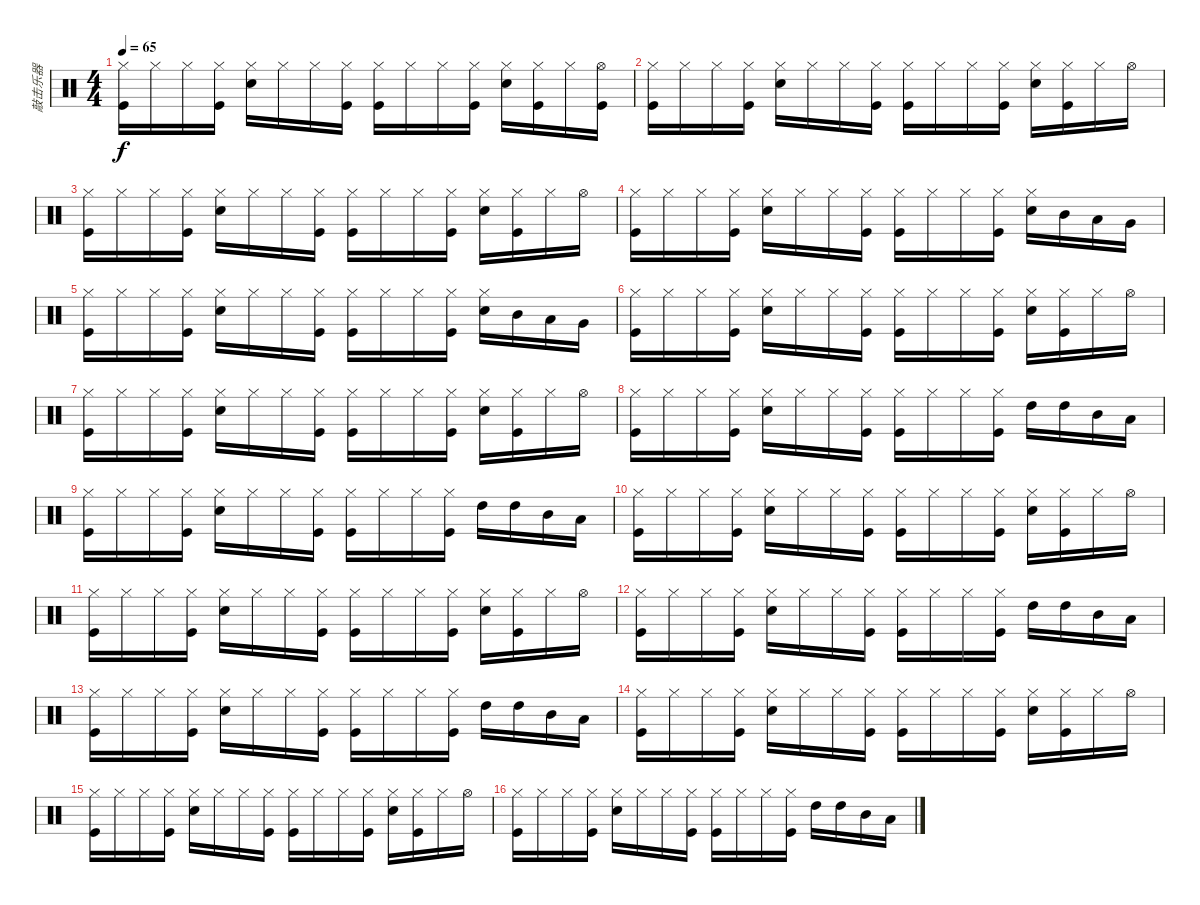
\track ("敲击乐器" "敲击乐器") {instrument percussion}
\staff {score}
\articulation defaults
\ts (4 4)
\tempo 65
\clef neutral
\ks c
("Hi-Hat (closed)" "Kick (hit)").16{dy f} "Hi-Hat (closed)".16 "Hi-Hat (closed)".16 ("Hi-Hat (closed)" "Kick (hit)").16 ("Hi-Hat (closed)" "Electric Snare (hit)").16 "Hi-Hat (closed)".16 "Hi-Hat (closed)".16 ("Hi-Hat (closed)" "Kick (hit)").16 ("Hi-Hat (closed)" "Kick (hit)").16 "Hi-Hat (closed)".16 "Hi-Hat (closed)".16 ("Hi-Hat (closed)" "Kick (hit)").16 ("Hi-Hat (closed)" "Electric Snare (hit)").16 ("Hi-Hat (closed)" "Kick (hit)").16 "Hi-Hat (closed)".16 ("Hi-Hat (open)" "Kick (hit)").16 |
("Hi-Hat (closed)" "Kick (hit)").16 "Hi-Hat (closed)".16 "Hi-Hat (closed)".16 ("Hi-Hat (closed)" "Kick (hit)").16 ("Hi-Hat (closed)" "Electric Snare (hit)").16 "Hi-Hat (closed)".16 "Hi-Hat (closed)".16 ("Hi-Hat (closed)" "Kick (hit)").16 ("Hi-Hat (closed)" "Kick (hit)").16 "Hi-Hat (closed)".16 "Hi-Hat (closed)".16 ("Hi-Hat (closed)" "Kick (hit)").16 ("Hi-Hat (closed)" "Electric Snare (hit)").16 ("Hi-Hat (closed)" "Kick (hit)").16 "Hi-Hat (closed)".16 "Hi-Hat (open)".16 |
("Hi-Hat (closed)" "Kick (hit)").16 "Hi-Hat (closed)".16 "Hi-Hat (closed)".16 ("Hi-Hat (closed)" "Kick (hit)").16 ("Hi-Hat (closed)" "Electric Snare (hit)").16 "Hi-Hat (closed)".16 "Hi-Hat (closed)".16 ("Hi-Hat (closed)" "Kick (hit)").16 ("Hi-Hat (closed)" "Kick (hit)").16 "Hi-Hat (closed)".16 "Hi-Hat (closed)".16 ("Hi-Hat (closed)" "Kick (hit)").16 ("Hi-Hat (closed)" "Electric Snare (hit)").16 ("Hi-Hat (closed)" "Kick (hit)").16 "Hi-Hat (closed)".16 "Hi-Hat (open)".16 |
("Hi-Hat (closed)" "Kick (hit)").16 "Hi-Hat (closed)".16 "Hi-Hat (closed)".16 ("Hi-Hat (closed)" "Kick (hit)").16 ("Hi-Hat (closed)" "Electric Snare (hit)").16 "Hi-Hat (closed)".16 "Hi-Hat (closed)".16 ("Hi-Hat (closed)" "Kick (hit)").16 ("Hi-Hat (closed)" "Kick (hit)").16 "Hi-Hat (closed)".16 "Hi-Hat (closed)".16 ("Hi-Hat (closed)" "Kick (hit)").16 ("Hi-Hat (closed)" "Electric Snare (hit)").16 "Mid Tom (hit)".16 "Low Tom (hit)".16 "Very Low Tom (hit)".16 |
("Hi-Hat (closed)" "Kick (hit)").16 "Hi-Hat (closed)".16 "Hi-Hat (closed)".16 ("Hi-Hat (closed)" "Kick (hit)").16 ("Hi-Hat (closed)" "Electric Snare (hit)").16 "Hi-Hat (closed)".16 "Hi-Hat (closed)".16 ("Hi-Hat (closed)" "Kick (hit)").16 ("Hi-Hat (closed)" "Kick (hit)").16 "Hi-Hat (closed)".16 "Hi-Hat (closed)".16 ("Hi-Hat (closed)" "Kick (hit)").16 ("Hi-Hat (closed)" "Electric Snare (hit)").16 "Mid Tom (hit)".16 "Low Tom (hit)".16 "Very Low Tom (hit)".16 |
("Hi-Hat (closed)" "Kick (hit)").16 "Hi-Hat (closed)".16 "Hi-Hat (closed)".16 ("Hi-Hat (closed)" "Kick (hit)").16 ("Hi-Hat (closed)" "Electric Snare (hit)").16 "Hi-Hat (closed)".16 "Hi-Hat (closed)".16 ("Hi-Hat (closed)" "Kick (hit)").16 ("Hi-Hat (closed)" "Kick (hit)").16 "Hi-Hat (closed)".16 "Hi-Hat (closed)".16 ("Hi-Hat (closed)" "Kick (hit)").16 ("Hi-Hat (closed)" "Electric Snare (hit)").16 ("Hi-Hat (closed)" "Kick (hit)").16 "Hi-Hat (closed)".16 "Hi-Hat (open)".16 |
("Hi-Hat (closed)" "Kick (hit)").16 "Hi-Hat (closed)".16 "Hi-Hat (closed)".16 ("Hi-Hat (closed)" "Kick (hit)").16 ("Hi-Hat (closed)" "Electric Snare (hit)").16 "Hi-Hat (closed)".16 "Hi-Hat (closed)".16 ("Hi-Hat (closed)" "Kick (hit)").16 ("Hi-Hat (closed)" "Kick (hit)").16 "Hi-Hat (closed)".16 "Hi-Hat (closed)".16 ("Hi-Hat (closed)" "Kick (hit)").16 ("Hi-Hat (closed)" "Electric Snare (hit)").16 ("Hi-Hat (closed)" "Kick (hit)").16 "Hi-Hat (closed)".16 "Hi-Hat (open)".16 |
("Hi-Hat (closed)" "Kick (hit)").16 "Hi-Hat (closed)".16 "Hi-Hat (closed)".16 ("Hi-Hat (closed)" "Kick (hit)").16 ("Hi-Hat (closed)" "Electric Snare (hit)").16 "Hi-Hat (closed)".16 "Hi-Hat (closed)".16 ("Hi-Hat (closed)" "Kick (hit)").16 ("Hi-Hat (closed)" "Kick (hit)").16 "Hi-Hat (closed)".16 "Hi-Hat (closed)".16 ("Hi-Hat (closed)" "Kick (hit)").16 "High Tom (hit)".16 "High Tom (hit)".16 "Mid Tom (hit)".16 "Low Tom (hit)".16 |
("Hi-Hat (closed)" "Kick (hit)").16 "Hi-Hat (closed)".16 "Hi-Hat (closed)".16 ("Hi-Hat (closed)" "Kick (hit)").16 ("Hi-Hat (closed)" "Electric Snare (hit)").16 "Hi-Hat (closed)".16 "Hi-Hat (closed)".16 ("Hi-Hat (closed)" "Kick (hit)").16 ("Hi-Hat (closed)" "Kick (hit)").16 "Hi-Hat (closed)".16 "Hi-Hat (closed)".16 ("Hi-Hat (closed)" "Kick (hit)").16 "High Tom (hit)".16 "High Tom (hit)".16 "Mid Tom (hit)".16 "Low Tom (hit)".16 |
("Hi-Hat (closed)" "Kick (hit)").16 "Hi-Hat (closed)".16 "Hi-Hat (closed)".16 ("Hi-Hat (closed)" "Kick (hit)").16 ("Hi-Hat (closed)" "Electric Snare (hit)").16 "Hi-Hat (closed)".16 "Hi-Hat (closed)".16 ("Hi-Hat (closed)" "Kick (hit)").16 ("Hi-Hat (closed)" "Kick (hit)").16 "Hi-Hat (closed)".16 "Hi-Hat (closed)".16 ("Hi-Hat (closed)" "Kick (hit)").16 ("Hi-Hat (closed)" "Electric Snare (hit)").16 ("Hi-Hat (closed)" "Kick (hit)").16 "Hi-Hat (closed)".16 "Hi-Hat (open)".16 |
("Hi-Hat (closed)" "Kick (hit)").16 "Hi-Hat (closed)".16 "Hi-Hat (closed)".16 ("Hi-Hat (closed)" "Kick (hit)").16 ("Hi-Hat (closed)" "Electric Snare (hit)").16 "Hi-Hat (closed)".16 "Hi-Hat (closed)".16 ("Hi-Hat (closed)" "Kick (hit)").16 ("Hi-Hat (closed)" "Kick (hit)").16 "Hi-Hat (closed)".16 "Hi-Hat (closed)".16 ("Hi-Hat (closed)" "Kick (hit)").16 ("Hi-Hat (closed)" "Electric Snare (hit)").16 ("Hi-Hat (closed)" "Kick (hit)").16 "Hi-Hat (closed)".16 "Hi-Hat (open)".16 |
("Hi-Hat (closed)" "Kick (hit)").16 "Hi-Hat (closed)".16 "Hi-Hat (closed)".16 ("Hi-Hat (closed)" "Kick (hit)").16 ("Hi-Hat (closed)" "Electric Snare (hit)").16 "Hi-Hat (closed)".16 "Hi-Hat (closed)".16 ("Hi-Hat (closed)" "Kick (hit)").16 ("Hi-Hat (closed)" "Kick (hit)").16 "Hi-Hat (closed)".16 "Hi-Hat (closed)".16 ("Hi-Hat (closed)" "Kick (hit)").16 "High Tom (hit)".16 "High Tom (hit)".16 "Mid Tom (hit)".16 "Low Tom (hit)".16 |
("Hi-Hat (closed)" "Kick (hit)").16 "Hi-Hat (closed)".16 "Hi-Hat (closed)".16 ("Hi-Hat (closed)" "Kick (hit)").16 ("Hi-Hat (closed)" "Electric Snare (hit)").16 "Hi-Hat (closed)".16 "Hi-Hat (closed)".16 ("Hi-Hat (closed)" "Kick (hit)").16 ("Hi-Hat (closed)" "Kick (hit)").16 "Hi-Hat (closed)".16 "Hi-Hat (closed)".16 ("Hi-Hat (closed)" "Kick (hit)").16 "High Tom (hit)".16 "High Tom (hit)".16 "Mid Tom (hit)".16 "Low Tom (hit)".16 |
("Hi-Hat (closed)" "Kick (hit)").16 "Hi-Hat (closed)".16 "Hi-Hat (closed)".16 ("Hi-Hat (closed)" "Kick (hit)").16 ("Hi-Hat (closed)" "Electric Snare (hit)").16 "Hi-Hat (closed)".16 "Hi-Hat (closed)".16 ("Hi-Hat (closed)" "Kick (hit)").16 ("Hi-Hat (closed)" "Kick (hit)").16 "Hi-Hat (closed)".16 "Hi-Hat (closed)".16 ("Hi-Hat (closed)" "Kick (hit)").16 ("Hi-Hat (closed)" "Electric Snare (hit)").16 ("Hi-Hat (closed)" "Kick (hit)").16 "Hi-Hat (closed)".16 "Hi-Hat (open)".16 |
("Hi-Hat (closed)" "Kick (hit)").16 "Hi-Hat (closed)".16 "Hi-Hat (closed)".16 ("Hi-Hat (closed)" "Kick (hit)").16 ("Hi-Hat (closed)" "Electric Snare (hit)").16 "Hi-Hat (closed)".16 "Hi-Hat (closed)".16 ("Hi-Hat (closed)" "Kick (hit)").16 ("Hi-Hat (closed)" "Kick (hit)").16 "Hi-Hat (closed)".16 "Hi-Hat (closed)".16 ("Hi-Hat (closed)" "Kick (hit)").16 ("Hi-Hat (closed)" "Electric Snare (hit)").16 ("Hi-Hat (closed)" "Kick (hit)").16 "Hi-Hat (closed)".16 "Hi-Hat (open)".16 |
("Hi-Hat (closed)" "Kick (hit)").16 "Hi-Hat (closed)".16 "Hi-Hat (closed)".16 ("Hi-Hat (closed)" "Kick (hit)").16 ("Hi-Hat (closed)" "Electric Snare (hit)").16 "Hi-Hat (closed)".16 "Hi-Hat (closed)".16 ("Hi-Hat (closed)" "Kick (hit)").16 ("Hi-Hat (closed)" "Kick (hit)").16 "Hi-Hat (closed)".16 "Hi-Hat (closed)".16 ("Hi-Hat (closed)" "Kick (hit)").16 "High Tom (hit)".16 "High Tom (hit)".16 "Mid Tom (hit)".16 "Low Tom (hit)".16
